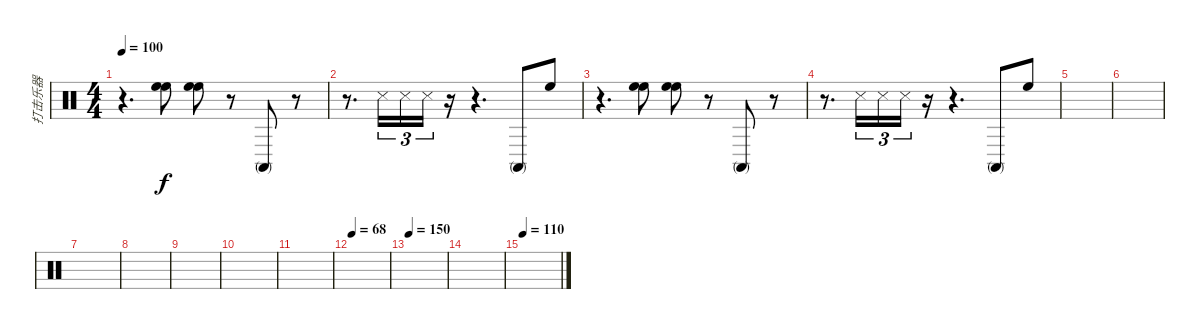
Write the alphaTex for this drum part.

\track ("打击乐器" "打击乐器") {instrument percussion bank 4}
\staff {score}
\articulation defaults
\ts (4 4)
\tempo 100
\clef neutral
\ks c
r.4{d dy f} ("High Floor Tom (hit)" "High Floor Tom (hit)").8 ("High Floor Tom (hit)" "High Floor Tom (hit)").8 r.8 "Conga high (mute)".8 r.8 |
r.8{d} "Metronome (hit)".16{tu (3 2)} "Metronome (hit)".16{tu (3 2)} "Metronome (hit)".16{tu (3 2)} r.16 r.4{d} "Conga high (mute)".8 "High Floor Tom (hit)".8 |
r.4{d} ("High Floor Tom (hit)" "High Floor Tom (hit)").8 ("High Floor Tom (hit)" "High Floor Tom (hit)").8 r.8 "Conga high (mute)".8 r.8 |
r.8{d} "Metronome (hit)".16{tu (3 2)} "Metronome (hit)".16{tu (3 2)} "Metronome (hit)".16{tu (3 2)} r.16 r.4{d} "Conga high (mute)".8 "High Floor Tom (hit)".8 |
|
|
|
|
|
|
|
\tempo 68
|
\tempo 150
|
|
\tempo 110
